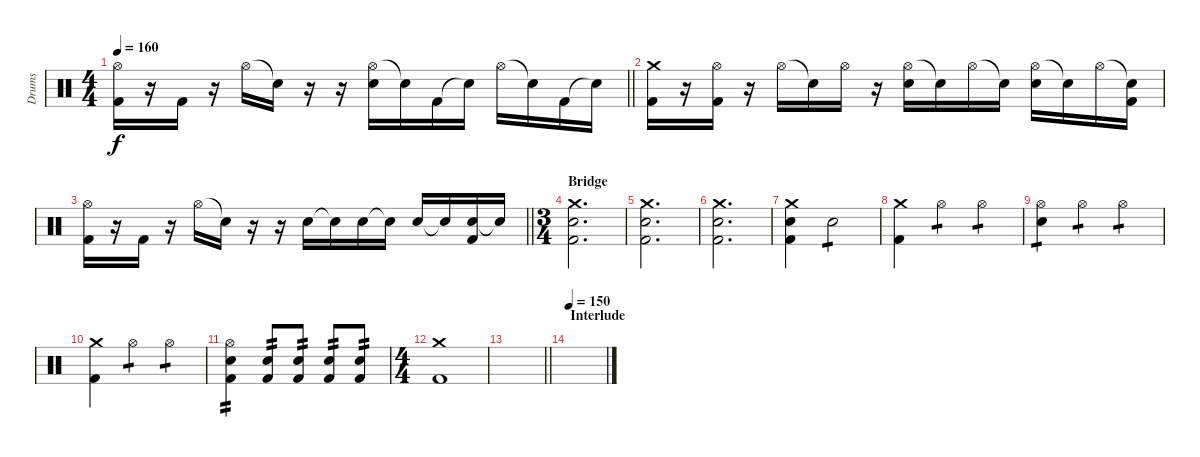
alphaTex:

\track ("Drums" "Drums") {instrument percussion}
\staff {score}
\articulation defaults
\ts (4 4)
\tempo 160
\clef neutral
\barLineRight lightlight
\ks c
("Hi-Hat (open)" "Kick (hit) 2").16{dy f} r.16 "Kick (hit) 2".16 r.16 "Hi-Hat (open)".16 "Snare (hit)"{t}.16 r.16 r.16 ("Hi-Hat (open)" "Snare (hit) 2").16 "Snare (hit)"{t}.16 "Kick (hit) 2".16 "Snare (hit)"{t}.16 "Hi-Hat (open)".16 "Snare (hit)"{t}.16 "Kick (hit) 2".16 "Snare (hit)"{t}.16 |
("Crash medium (hit)" "Kick (hit) 2").16 r.16 ("Hi-Hat (open)" "Kick (hit) 2").16 r.16 "Hi-Hat (open)".16 "Snare (hit)"{t}.16 "Hi-Hat (open)".16 r.16 ("Hi-Hat (open)" "Snare (hit) 2").16 "Snare (hit)"{t}.16 "Hi-Hat (open)".16 "Snare (hit)"{t}.16 ("Hi-Hat (open)" "Snare (hit) 2").16 "Snare (hit)"{t}.16 "Hi-Hat (open)".16 ("Snare (hit)"{t} "Kick (hit) 2").16 |
\barLineRight lightlight
("Hi-Hat (open)" "Kick (hit) 2").16 r.16 "Kick (hit) 2".16 r.16 "Hi-Hat (open)".16 "Snare (hit)"{t}.16 r.16 r.16 "Snare (hit) 2".16 "Snare (hit)"{t}.16 "Snare (hit) 2".16 "Snare (hit)"{t}.16 "Snare (hit) 2".16 "Snare (hit)"{t}.16 ("Snare (hit) 2" "Kick (hit) 2").16 "Snare (hit)"{t}.16 |
\ts (3 4)
\section ("" "Bridge")
("Crash medium (hit)" "Snare (hit) 2" "Kick (hit) 2").2{d} |
("Crash medium (hit)" "Snare (hit) 2" "Kick (hit) 2").2{d} |
("Crash medium (hit)" "Snare (hit) 2" "Kick (hit) 2").2{d} |
("Crash medium (hit)" "Snare (hit) 2" "Kick (hit) 2").4 "Snare (hit) 2".2{tp 1} |
("Crash medium (hit)" "Kick (hit) 2").4 "Hi-Hat (open)".4{tp 1} "Hi-Hat (open)".4{tp 1} |
("Hi-Hat (open)" "Snare (hit) 2").4{tp 1} "Hi-Hat (open)".4{tp 1} "Hi-Hat (open)".4{tp 1} |
("Crash medium (hit)" "Kick (hit) 2").4 "Hi-Hat (open)".4{tp 1} "Hi-Hat (open)".4{tp 1} |
("Hi-Hat (open)" "Snare (hit) 2" "Kick (hit) 2").4{tp 2} ("Snare (hit) 2" "Kick (hit) 2").8{tp 2} ("Snare (hit) 2" "Kick (hit) 2").8{tp 2} ("Snare (hit) 2" "Kick (hit) 2").8{tp 2} ("Snare (hit) 2" "Kick (hit) 2").8{tp 2} |
\ts (4 4)
("Crash medium (hit)" "Kick (hit) 2").1 |
\barLineRight lightlight
|
\section ("" "Interlude")
\tempo 150
